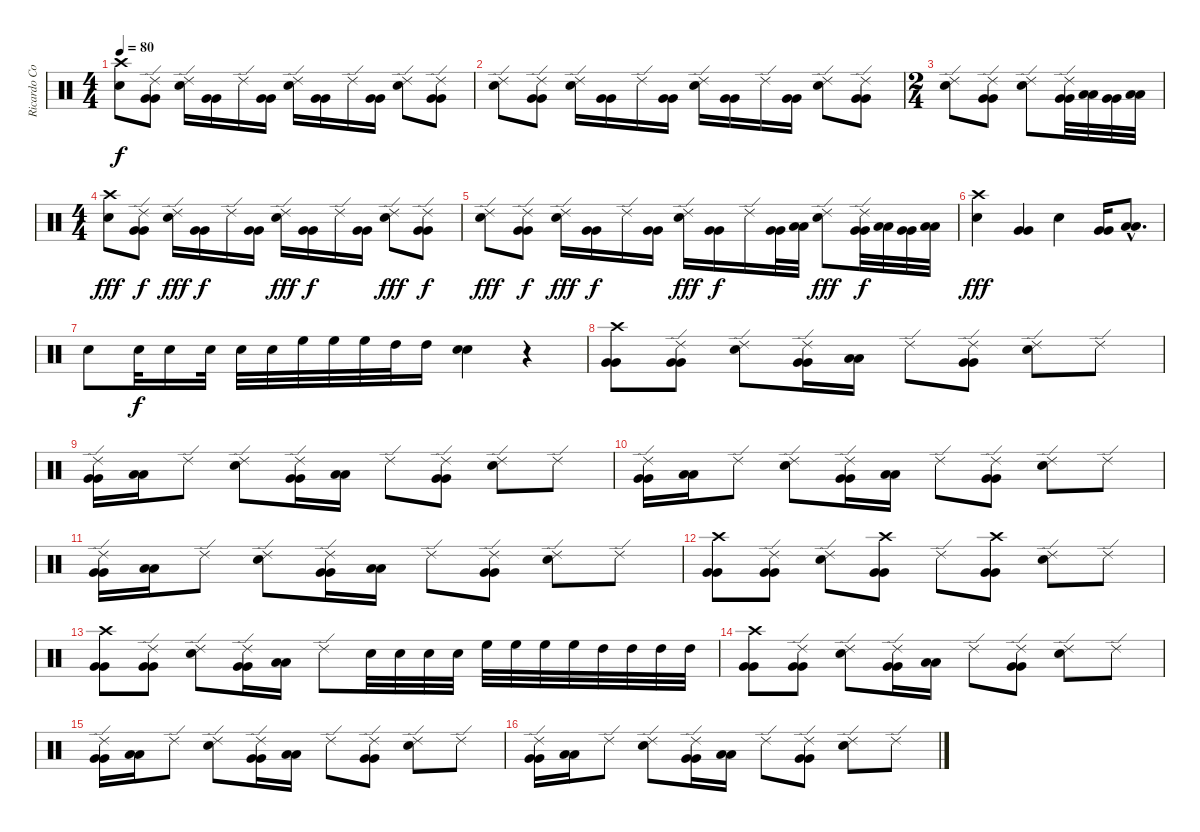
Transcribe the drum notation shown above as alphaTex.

\track ("Ricardo Confessori" "Ricardo Co") {instrument percussion}
\staff {score}
\articulation defaults
\ts (4 4)
\tempo 80
\clef neutral
\ks c
("Crash high (hit)" "Electric Snare (hit)").8{dy f} ("Ride (edge) 2" "Very Low Tom (hit)" "Very Low Tom (hit)").8 ("Ride (edge) 2" "Electric Snare (hit)").16 ("Very Low Tom (hit)" "Very Low Tom (hit)").16 "Ride (edge) 2".16 ("Very Low Tom (hit)" "Very Low Tom (hit)").16 ("Ride (edge) 2" "Electric Snare (hit)").16 ("Very Low Tom (hit)" "Very Low Tom (hit)").16 "Ride (edge) 2".16 ("Very Low Tom (hit)" "Very Low Tom (hit)").16 ("Ride (edge) 2" "Electric Snare (hit)").8 ("Ride (edge) 2" "Very Low Tom (hit)" "Very Low Tom (hit)").8 |
("Ride (edge) 2" "Electric Snare (hit)").8 ("Ride (edge) 2" "Very Low Tom (hit)" "Very Low Tom (hit)").8 ("Ride (edge) 2" "Electric Snare (hit)").16 ("Very Low Tom (hit)" "Very Low Tom (hit)").16 "Ride (edge) 2".16 ("Very Low Tom (hit)" "Very Low Tom (hit)").16 ("Ride (edge) 2" "Electric Snare (hit)").16 ("Very Low Tom (hit)" "Very Low Tom (hit)").16 "Ride (edge) 2".16 ("Very Low Tom (hit)" "Very Low Tom (hit)").16 ("Ride (edge) 2" "Electric Snare (hit)").8 ("Ride (edge) 2" "Very Low Tom (hit)" "Very Low Tom (hit)").8 |
\ts (2 4)
("Ride (edge) 2" "Electric Snare (hit)").8 ("Ride (edge) 2" "Very Low Tom (hit)" "Very Low Tom (hit)").8 ("Ride (edge) 2" "Electric Snare (hit)").8 ("Ride (edge) 2" "Very Low Tom (hit)" "Very Low Tom (hit)").32 ("Low Floor Tom (hit)" "Low Floor Tom (hit)").32 ("Very Low Tom (hit)" "Very Low Tom (hit)").32 ("Low Floor Tom (hit)" "Low Floor Tom (hit)").32 |
\ts (4 4)
("Crash high (hit)" "Electric Snare (hit)").8{dy fff} ("Ride (edge) 2" "Very Low Tom (hit)" "Very Low Tom (hit)").8{dy f} ("Ride (edge) 2" "Electric Snare (hit)").16{dy fff} ("Very Low Tom (hit)" "Very Low Tom (hit)").16{dy f} "Ride (edge) 2".16 ("Very Low Tom (hit)" "Very Low Tom (hit)").16 ("Ride (edge) 2" "Electric Snare (hit)").16{dy fff} ("Very Low Tom (hit)" "Very Low Tom (hit)").16{dy f} "Ride (edge) 2".16 ("Very Low Tom (hit)" "Very Low Tom (hit)").16 ("Ride (edge) 2" "Electric Snare (hit)").8{dy fff} ("Ride (edge) 2" "Very Low Tom (hit)" "Very Low Tom (hit)").8{dy f} |
("Ride (edge) 2" "Electric Snare (hit)").8{dy fff} ("Ride (edge) 2" "Very Low Tom (hit)" "Very Low Tom (hit)").8{dy f} ("Ride (edge) 2" "Electric Snare (hit)").16{dy fff} ("Very Low Tom (hit)" "Very Low Tom (hit)").16{dy f} "Ride (edge) 2".16 ("Very Low Tom (hit)" "Very Low Tom (hit)").16 ("Ride (edge) 2" "Electric Snare (hit)").16{dy fff} ("Very Low Tom (hit)" "Very Low Tom (hit)").16{dy f} "Ride (edge) 2".16 ("Very Low Tom (hit)" "Very Low Tom (hit)").32 ("Low Floor Tom (hit)" "Low Floor Tom (hit)").32 ("Ride (edge) 2" "Electric Snare (hit)").8{dy fff} ("Ride (edge) 2" "Very Low Tom (hit)" "Very Low Tom (hit)").32{dy f} ("Low Floor Tom (hit)" "Low Floor Tom (hit)").32 ("Very Low Tom (hit)" "Very Low Tom (hit)").32 ("Low Floor Tom (hit)" "Low Floor Tom (hit)").32 |
("Crash high (hit)" "Electric Snare (hit)").4{dy fff} ("Very Low Tom (hit)" "Very Low Tom (hit)").4 "Electric Snare (hit)".4 ("Very Low Tom (hit)" "Very Low Tom (hit)").16 ("Low Floor Tom (hit)"{hac} "Low Floor Tom (hit)"{hac}).8{d} |
"Electric Snare (hit)".8 "Electric Snare (hit)".32{dy f} "Electric Snare (hit)".16 "Electric Snare (hit)".32 "Electric Snare (hit)".32 "Electric Snare (hit)".32 "High Floor Tom (hit)".32 "High Floor Tom (hit)".32 "High Floor Tom (hit)".32 "High Tom (hit)".32 "High Tom (hit)".16 ("Electric Snare (hit)" "Electric Snare (hit)").4{bd 120} r.4 |
("Crash high (hit)" "Very Low Tom (hit)" "Very Low Tom (hit)").8 ("Ride (edge) 2" "Very Low Tom (hit)" "Very Low Tom (hit)").8 ("Ride (edge) 2" "Electric Snare (hit)").8 ("Ride (edge) 2" "Very Low Tom (hit)" "Very Low Tom (hit)").16 ("Low Floor Tom (hit)" "Low Floor Tom (hit)").16 "Ride (edge) 2".8 ("Ride (edge) 2" "Very Low Tom (hit)" "Very Low Tom (hit)").8 ("Ride (edge) 2" "Electric Snare (hit)").8 "Ride (edge) 2".8 |
("Ride (edge) 2" "Very Low Tom (hit)" "Very Low Tom (hit)").16 ("Low Floor Tom (hit)" "Low Floor Tom (hit)").16 "Ride (edge) 2".8 ("Ride (edge) 2" "Electric Snare (hit)").8 ("Ride (edge) 2" "Very Low Tom (hit)" "Very Low Tom (hit)").16 ("Low Floor Tom (hit)" "Low Floor Tom (hit)").16 "Ride (edge) 2".8 ("Ride (edge) 2" "Very Low Tom (hit)" "Very Low Tom (hit)").8 ("Ride (edge) 2" "Electric Snare (hit)").8 "Ride (edge) 2".8 |
("Ride (edge) 2" "Very Low Tom (hit)" "Very Low Tom (hit)").16 ("Low Floor Tom (hit)" "Low Floor Tom (hit)").16 "Ride (edge) 2".8 ("Ride (edge) 2" "Electric Snare (hit)").8 ("Ride (edge) 2" "Very Low Tom (hit)" "Very Low Tom (hit)").16 ("Low Floor Tom (hit)" "Low Floor Tom (hit)").16 "Ride (edge) 2".8 ("Ride (edge) 2" "Very Low Tom (hit)" "Very Low Tom (hit)").8 ("Ride (edge) 2" "Electric Snare (hit)").8 "Ride (edge) 2".8 |
("Ride (edge) 2" "Very Low Tom (hit)" "Very Low Tom (hit)").16 ("Low Floor Tom (hit)" "Low Floor Tom (hit)").16 "Ride (edge) 2".8 ("Ride (edge) 2" "Electric Snare (hit)").8 ("Ride (edge) 2" "Very Low Tom (hit)" "Very Low Tom (hit)").16 ("Low Floor Tom (hit)" "Low Floor Tom (hit)").16 "Ride (edge) 2".8 ("Ride (edge) 2" "Very Low Tom (hit)" "Very Low Tom (hit)").8 ("Ride (edge) 2" "Electric Snare (hit)").8 "Ride (edge) 2".8 |
("Crash high (hit)" "Very Low Tom (hit)" "Very Low Tom (hit)").8 ("Ride (edge) 2" "Very Low Tom (hit)" "Very Low Tom (hit)").8 ("Ride (edge) 2" "Electric Snare (hit)").8 ("Crash high (hit)" "Very Low Tom (hit)" "Very Low Tom (hit)").8 "Ride (edge) 2".8 ("Crash high (hit)" "Very Low Tom (hit)" "Very Low Tom (hit)").8 ("Ride (edge) 2" "Electric Snare (hit)").8 "Ride (edge) 2".8 |
("Crash high (hit)" "Very Low Tom (hit)" "Very Low Tom (hit)").8 ("Ride (edge) 2" "Very Low Tom (hit)" "Very Low Tom (hit)").8 ("Ride (edge) 2" "Electric Snare (hit)").8 ("Ride (edge) 2" "Very Low Tom (hit)" "Very Low Tom (hit)").16 ("Low Floor Tom (hit)" "Low Floor Tom (hit)").16 "Ride (edge) 2".8 "Electric Snare (hit)".32 "Electric Snare (hit)".32 "Electric Snare (hit)".32 "Electric Snare (hit)".32 "High Floor Tom (hit)".32 "High Floor Tom (hit)".32 "High Floor Tom (hit)".32 "High Floor Tom (hit)".32 "High Tom (hit)".32 "High Tom (hit)".32 "High Tom (hit)".32 "High Tom (hit)".32 |
("Crash high (hit)" "Very Low Tom (hit)" "Very Low Tom (hit)").8 ("Ride (edge) 2" "Very Low Tom (hit)" "Very Low Tom (hit)").8 ("Ride (edge) 2" "Electric Snare (hit)").8 ("Ride (edge) 2" "Very Low Tom (hit)" "Very Low Tom (hit)").16 ("Low Floor Tom (hit)" "Low Floor Tom (hit)").16 "Ride (edge) 2".8 ("Ride (edge) 2" "Very Low Tom (hit)" "Very Low Tom (hit)").8 ("Ride (edge) 2" "Electric Snare (hit)").8 "Ride (edge) 2".8 |
("Ride (edge) 2" "Very Low Tom (hit)" "Very Low Tom (hit)").16 ("Low Floor Tom (hit)" "Low Floor Tom (hit)").16 "Ride (edge) 2".8 ("Ride (edge) 2" "Electric Snare (hit)").8 ("Ride (edge) 2" "Very Low Tom (hit)" "Very Low Tom (hit)").16 ("Low Floor Tom (hit)" "Low Floor Tom (hit)").16 "Ride (edge) 2".8 ("Ride (edge) 2" "Very Low Tom (hit)" "Very Low Tom (hit)").8 ("Ride (edge) 2" "Electric Snare (hit)").8 "Ride (edge) 2".8 |
("Ride (edge) 2" "Very Low Tom (hit)" "Very Low Tom (hit)").16 ("Low Floor Tom (hit)" "Low Floor Tom (hit)").16 "Ride (edge) 2".8 ("Ride (edge) 2" "Electric Snare (hit)").8 ("Ride (edge) 2" "Very Low Tom (hit)" "Very Low Tom (hit)").16 ("Low Floor Tom (hit)" "Low Floor Tom (hit)").16 "Ride (edge) 2".8 ("Ride (edge) 2" "Very Low Tom (hit)" "Very Low Tom (hit)").8 ("Ride (edge) 2" "Electric Snare (hit)").8 "Ride (edge) 2".8
